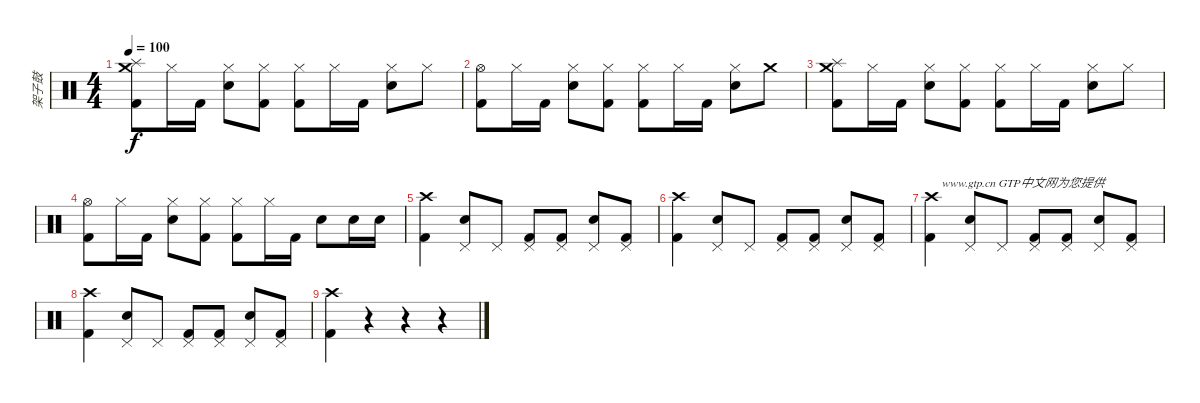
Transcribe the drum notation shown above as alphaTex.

\track ("架子鼓" "架子鼓") {instrument percussion}
\staff {score}
\articulation defaults
\ts (4 4)
\tempo 100
\clef neutral
\ks c
("Splash (hit)" "Crash medium (hit)" "Kick (hit) 2").8{dy f} "Hi-Hat (closed)".16 "Kick (hit) 2".16 ("Hi-Hat (closed)" "Electric Snare (hit)").8 ("Hi-Hat (closed)" "Kick (hit) 2").8 ("Hi-Hat (closed)" "Kick (hit) 2").8 "Hi-Hat (closed)".16 "Kick (hit) 2".16 ("Hi-Hat (closed)" "Electric Snare (hit)").8 "Hi-Hat (closed)".8 |
("Hi-Hat (open)" "Kick (hit) 2").8 "Hi-Hat (closed)".16 "Kick (hit) 2".16 ("Hi-Hat (closed)" "Electric Snare (hit)").8 ("Hi-Hat (closed)" "Kick (hit) 2").8 ("Hi-Hat (closed)" "Kick (hit) 2").8 "Hi-Hat (closed)".16 "Kick (hit) 2".16 ("Hi-Hat (closed)" "Electric Snare (hit)").8 "Crash medium (hit)".8 |
("Splash (hit)" "Crash medium (hit)" "Kick (hit) 2").8 "Hi-Hat (closed)".16 "Kick (hit) 2".16 ("Hi-Hat (closed)" "Electric Snare (hit)").8 ("Hi-Hat (closed)" "Kick (hit) 2").8 ("Hi-Hat (closed)" "Kick (hit) 2").8 "Hi-Hat (closed)".16 "Kick (hit) 2".16 ("Hi-Hat (closed)" "Electric Snare (hit)").8 "Hi-Hat (closed)".8 |
("Hi-Hat (open)" "Kick (hit) 2").8 "Hi-Hat (closed)".16 "Kick (hit) 2".16 ("Hi-Hat (closed)" "Electric Snare (hit)").8 ("Hi-Hat (closed)" "Kick (hit) 2").8 ("Hi-Hat (closed)" "Kick (hit) 2").8 "Hi-Hat (closed)".16 "Kick (hit) 2".16 "Electric Snare (hit)".8 "Electric Snare (hit)".16 "Electric Snare (hit)".16 |
("Crash high (hit)" "Kick (hit) 2").4 ("Pedal Hi-Hat (hit)" "Snare (hit) 2").8 "Pedal Hi-Hat (hit)".8 ("Pedal Hi-Hat (hit)" "Kick (hit) 2").8 ("Pedal Hi-Hat (hit)" "Kick (hit) 2").8 ("Pedal Hi-Hat (hit)" "Snare (hit) 2").8 ("Pedal Hi-Hat (hit)" "Kick (hit) 2").8 |
("Crash high (hit)" "Kick (hit) 2").4 ("Pedal Hi-Hat (hit)" "Snare (hit) 2").8 "Pedal Hi-Hat (hit)".8 ("Pedal Hi-Hat (hit)" "Kick (hit) 2").8 ("Pedal Hi-Hat (hit)" "Kick (hit) 2").8 ("Pedal Hi-Hat (hit)" "Snare (hit) 2").8 ("Pedal Hi-Hat (hit)" "Kick (hit) 2").8{txt "                     www.gtp.cn GTP中文网为您提供"} |
("Crash high (hit)" "Kick (hit) 2").4 ("Pedal Hi-Hat (hit)" "Snare (hit) 2").8 "Pedal Hi-Hat (hit)".8 ("Pedal Hi-Hat (hit)" "Kick (hit) 2").8 ("Pedal Hi-Hat (hit)" "Kick (hit) 2").8 ("Pedal Hi-Hat (hit)" "Snare (hit) 2").8 ("Pedal Hi-Hat (hit)" "Kick (hit) 2").8 |
("Crash high (hit)" "Kick (hit) 2").4 ("Pedal Hi-Hat (hit)" "Snare (hit) 2").8 "Pedal Hi-Hat (hit)".8 ("Pedal Hi-Hat (hit)" "Kick (hit) 2").8 ("Pedal Hi-Hat (hit)" "Kick (hit) 2").8 ("Pedal Hi-Hat (hit)" "Snare (hit) 2").8 ("Pedal Hi-Hat (hit)" "Kick (hit) 2").8 |
("Crash high (hit)" "Kick (hit) 2").4 r.4 r.4 r.4
